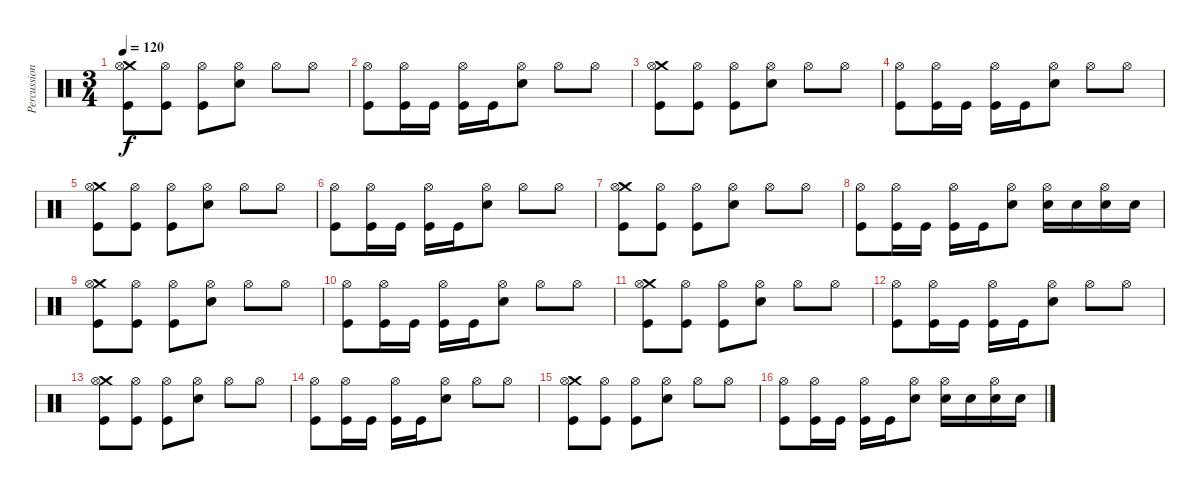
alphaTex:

\track ("Percussion" "Percussion") {instrument percussion}
\staff {score}
\articulation defaults
\ts (3 4)
\tempo 120
\clef neutral
\ks c
("Crash medium (hit)" "Hi-Hat (open)" "Kick (hit)").8{dy f} ("Hi-Hat (open)" "Kick (hit)").8 ("Hi-Hat (open)" "Kick (hit)").8 ("Hi-Hat (open)" "Electric Snare (hit)").8 "Hi-Hat (open)".8 "Hi-Hat (open)".8 |
("Hi-Hat (open)" "Kick (hit)").8 ("Hi-Hat (open)" "Kick (hit)").16 "Kick (hit)".16 ("Hi-Hat (open)" "Kick (hit)").16 "Kick (hit)".16 ("Hi-Hat (open)" "Electric Snare (hit)").8 "Hi-Hat (open)".8 "Hi-Hat (open)".8 |
("Crash medium (hit)" "Hi-Hat (open)" "Kick (hit)").8 ("Hi-Hat (open)" "Kick (hit)").8 ("Hi-Hat (open)" "Kick (hit)").8 ("Hi-Hat (open)" "Electric Snare (hit)").8 "Hi-Hat (open)".8 "Hi-Hat (open)".8 |
("Hi-Hat (open)" "Kick (hit)").8 ("Hi-Hat (open)" "Kick (hit)").16 "Kick (hit)".16 ("Hi-Hat (open)" "Kick (hit)").16 "Kick (hit)".16 ("Hi-Hat (open)" "Electric Snare (hit)").8 "Hi-Hat (open)".8 "Hi-Hat (open)".8 |
("Crash medium (hit)" "Hi-Hat (open)" "Kick (hit)").8 ("Hi-Hat (open)" "Kick (hit)").8 ("Hi-Hat (open)" "Kick (hit)").8 ("Hi-Hat (open)" "Electric Snare (hit)").8 "Hi-Hat (open)".8 "Hi-Hat (open)".8 |
("Hi-Hat (open)" "Kick (hit)").8 ("Hi-Hat (open)" "Kick (hit)").16 "Kick (hit)".16 ("Hi-Hat (open)" "Kick (hit)").16 "Kick (hit)".16 ("Hi-Hat (open)" "Electric Snare (hit)").8 "Hi-Hat (open)".8 "Hi-Hat (open)".8 |
("Crash medium (hit)" "Hi-Hat (open)" "Kick (hit)").8 ("Hi-Hat (open)" "Kick (hit)").8 ("Hi-Hat (open)" "Kick (hit)").8 ("Hi-Hat (open)" "Electric Snare (hit)").8 "Hi-Hat (open)".8 "Hi-Hat (open)".8 |
("Hi-Hat (open)" "Kick (hit)").8 ("Hi-Hat (open)" "Kick (hit)").16 "Kick (hit)".16 ("Hi-Hat (open)" "Kick (hit)").16 "Kick (hit)".16 ("Hi-Hat (open)" "Electric Snare (hit)").8 ("Hi-Hat (open)" "Electric Snare (hit)").16 "Electric Snare (hit)".16 ("Hi-Hat (open)" "Electric Snare (hit)").16 "Electric Snare (hit)".16 |
("Crash medium (hit)" "Hi-Hat (open)" "Kick (hit)").8 ("Hi-Hat (open)" "Kick (hit)").8 ("Hi-Hat (open)" "Kick (hit)").8 ("Hi-Hat (open)" "Electric Snare (hit)").8 "Hi-Hat (open)".8 "Hi-Hat (open)".8 |
("Hi-Hat (open)" "Kick (hit)").8 ("Hi-Hat (open)" "Kick (hit)").16 "Kick (hit)".16 ("Hi-Hat (open)" "Kick (hit)").16 "Kick (hit)".16 ("Hi-Hat (open)" "Electric Snare (hit)").8 "Hi-Hat (open)".8 "Hi-Hat (open)".8 |
("Crash medium (hit)" "Hi-Hat (open)" "Kick (hit)").8 ("Hi-Hat (open)" "Kick (hit)").8 ("Hi-Hat (open)" "Kick (hit)").8 ("Hi-Hat (open)" "Electric Snare (hit)").8 "Hi-Hat (open)".8 "Hi-Hat (open)".8 |
("Hi-Hat (open)" "Kick (hit)").8 ("Hi-Hat (open)" "Kick (hit)").16 "Kick (hit)".16 ("Hi-Hat (open)" "Kick (hit)").16 "Kick (hit)".16 ("Hi-Hat (open)" "Electric Snare (hit)").8 "Hi-Hat (open)".8 "Hi-Hat (open)".8 |
("Crash medium (hit)" "Hi-Hat (open)" "Kick (hit)").8 ("Hi-Hat (open)" "Kick (hit)").8 ("Hi-Hat (open)" "Kick (hit)").8 ("Hi-Hat (open)" "Electric Snare (hit)").8 "Hi-Hat (open)".8 "Hi-Hat (open)".8 |
("Hi-Hat (open)" "Kick (hit)").8 ("Hi-Hat (open)" "Kick (hit)").16 "Kick (hit)".16 ("Hi-Hat (open)" "Kick (hit)").16 "Kick (hit)".16 ("Hi-Hat (open)" "Electric Snare (hit)").8 "Hi-Hat (open)".8 "Hi-Hat (open)".8 |
("Crash medium (hit)" "Hi-Hat (open)" "Kick (hit)").8 ("Hi-Hat (open)" "Kick (hit)").8 ("Hi-Hat (open)" "Kick (hit)").8 ("Hi-Hat (open)" "Electric Snare (hit)").8 "Hi-Hat (open)".8 "Hi-Hat (open)".8 |
("Hi-Hat (open)" "Kick (hit)").8 ("Hi-Hat (open)" "Kick (hit)").16 "Kick (hit)".16 ("Hi-Hat (open)" "Kick (hit)").16 "Kick (hit)".16 ("Hi-Hat (open)" "Electric Snare (hit)").8 ("Hi-Hat (open)" "Electric Snare (hit)").16 "Electric Snare (hit)".16 ("Hi-Hat (open)" "Electric Snare (hit)").16 "Electric Snare (hit)".16
